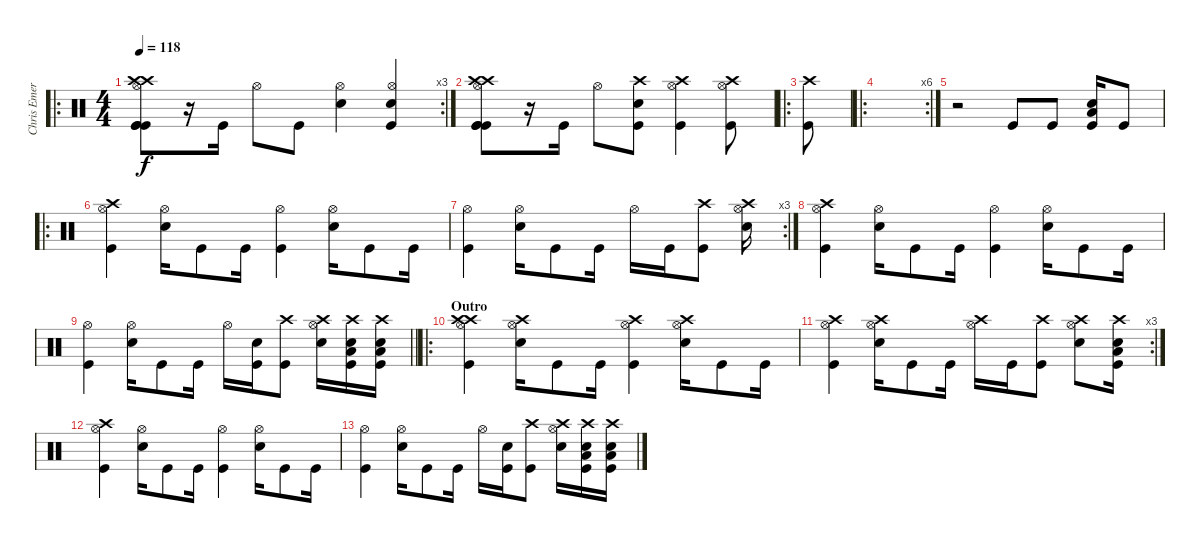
\track ("Chris Emery" "Chris Emer") {instrument percussion}
\staff {score}
\articulation defaults
\ro
\rc 3
\ts (4 4)
\tempo 118
\clef neutral
\ks c
("Kick (hit)" "Crash high (hit)" "Kick (hit)" "Kick (hit)" "Crash high (hit)" "Hi-Hat (open)").8{dy f} r.16 "Kick (hit)".16 "Hi-Hat (open)".8 "Kick (hit)".8 ("Hi-Hat (open)" "Snare (hit) 2").4 ("Kick (hit)" "Hi-Hat (open)" "Snare (hit) 2").4 |
("Kick (hit)" "Crash high (hit)" "Kick (hit)" "Kick (hit)" "Crash high (hit)" "Hi-Hat (open)").8 r.16 "Kick (hit)".16 "Hi-Hat (open)".8 ("Kick (hit)" "Snare (hit) 2" "Crash high (hit)").8 ("Hi-Hat (open)" "Crash high (hit)" "Kick (hit)").4 ("Kick (hit)" "Hi-Hat (open)" "Crash high (hit)").8 |
\ro
("Crash high (hit)" "Kick (hit)").8 |
\ro
\rc 6
|
r.2 "Kick (hit)".8 "Kick (hit)".8 ("Snare (hit) 2" "Kick (hit)" "Low Floor Tom (hit)").16 "Kick (hit)".8 |
\ro
("Hi-Hat (open)" "Kick (hit)" "Crash high (hit)").4 ("Snare (hit) 2" "Hi-Hat (open)").16 "Kick (hit)".8 "Kick (hit)".16 ("Hi-Hat (open)" "Kick (hit)").4 ("Snare (hit) 2" "Hi-Hat (open)").16 "Kick (hit)".8 "Kick (hit)".16 |
\rc 3
("Hi-Hat (open)" "Kick (hit)").4 ("Snare (hit) 2" "Hi-Hat (open)").16 "Kick (hit)".8 "Kick (hit)".16 "Hi-Hat (open)".16 "Kick (hit)".16 ("Kick (hit)" "Crash high (hit)").8 ("Snare (hit) 2" "Hi-Hat (open)" "Crash high (hit)").16 |
("Hi-Hat (open)" "Kick (hit)" "Crash high (hit)").4 ("Snare (hit) 2" "Hi-Hat (open)").16 "Kick (hit)".8 "Kick (hit)".16 ("Hi-Hat (open)" "Kick (hit)").4 ("Snare (hit) 2" "Hi-Hat (open)").16 "Kick (hit)".8 "Kick (hit)".16 |
\barLineRight lightlight
("Hi-Hat (open)" "Kick (hit)").4 ("Snare (hit) 2" "Hi-Hat (open)").16 "Kick (hit)".8 "Kick (hit)".16 "Hi-Hat (open)".16 ("Kick (hit)" "Snare (hit) 2").16 ("Kick (hit)" "Crash high (hit)").8 ("Snare (hit) 2" "Hi-Hat (open)" "Crash high (hit)").16 ("Kick (hit)" "Snare (hit) 2" "Low Floor Tom (hit)" "Crash high (hit)").16 ("Snare (hit) 2" "Kick (hit)" "Low Floor Tom (hit)" "Crash high (hit)").16 |
\ro
\section ("" "Outro")
("Hi-Hat (open)" "Kick (hit)" "Crash high (hit)" "Crash high (hit)").4 ("Snare (hit) 2" "Hi-Hat (open)" "Crash high (hit)").16 "Kick (hit)".8 "Kick (hit)".16 ("Hi-Hat (open)" "Kick (hit)" "Crash high (hit)").4 ("Snare (hit) 2" "Hi-Hat (open)" "Crash high (hit)").16 "Kick (hit)".8 "Kick (hit)".16 |
\rc 3
("Hi-Hat (open)" "Kick (hit)" "Crash high (hit)").4 ("Snare (hit) 2" "Hi-Hat (open)" "Crash high (hit)").16 "Kick (hit)".8 "Kick (hit)".16 ("Hi-Hat (open)" "Crash high (hit)").16 "Kick (hit)".16 ("Kick (hit)" "Crash high (hit)").8 ("Snare (hit) 2" "Hi-Hat (open)" "Crash high (hit)").8 ("Kick (hit)" "Snare (hit) 2" "Low Floor Tom (hit)" "Crash high (hit)").16 |
("Hi-Hat (open)" "Kick (hit)" "Crash high (hit)").4 ("Snare (hit) 2" "Hi-Hat (open)").16 "Kick (hit)".8 "Kick (hit)".16 ("Hi-Hat (open)" "Kick (hit)").4 ("Snare (hit) 2" "Hi-Hat (open)").16 "Kick (hit)".8 "Kick (hit)".16 |
("Hi-Hat (open)" "Kick (hit)").4 ("Snare (hit) 2" "Hi-Hat (open)").16 "Kick (hit)".8 "Kick (hit)".16 "Hi-Hat (open)".16 ("Kick (hit)" "Snare (hit) 2").16 ("Kick (hit)" "Crash high (hit)").8 ("Snare (hit) 2" "Hi-Hat (open)" "Crash high (hit)").16 ("Kick (hit)" "Snare (hit) 2" "Low Floor Tom (hit)" "Crash high (hit)").16 ("Snare (hit) 2" "Kick (hit)" "Low Floor Tom (hit)" "Crash high (hit)").16
